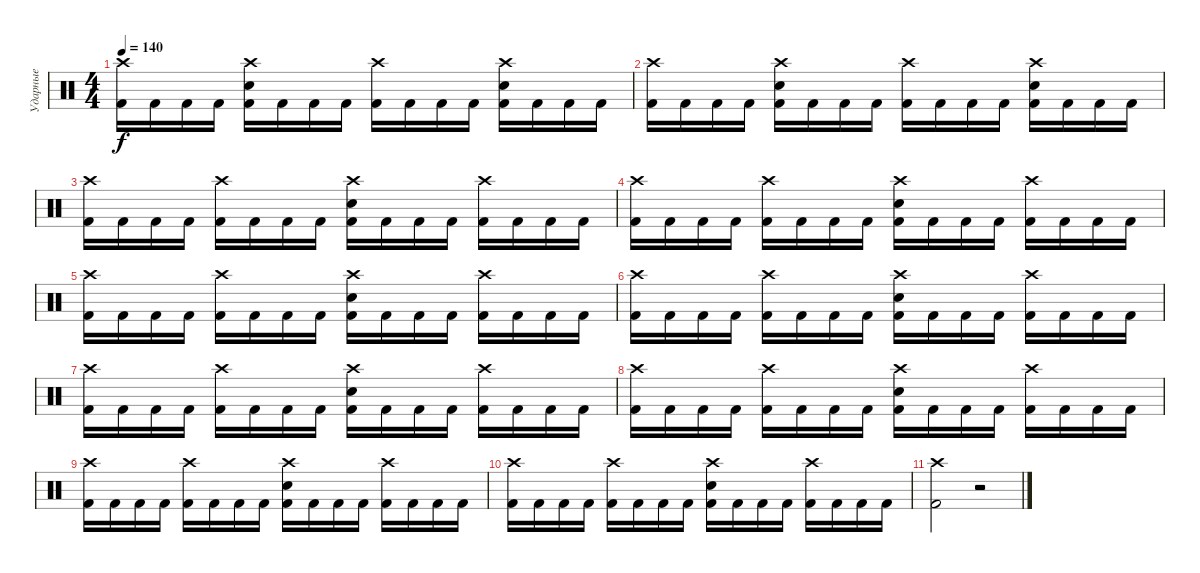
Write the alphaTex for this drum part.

\track ("Ударные" "Ударные") {mute instrument percussion}
\staff {score}
\articulation defaults
\ts (4 4)
\tempo 140
\clef neutral
\ks c
("Crash high (hit)" "Kick (hit) 2").16{dy f} "Kick (hit) 2".16 "Kick (hit) 2".16 "Kick (hit) 2".16 ("Crash high (hit)" "Electric Snare (hit)" "Kick (hit) 2").16 "Kick (hit) 2".16 "Kick (hit) 2".16 "Kick (hit) 2".16 ("Crash high (hit)" "Kick (hit) 2").16 "Kick (hit) 2".16 "Kick (hit) 2".16 "Kick (hit) 2".16 ("Crash high (hit)" "Electric Snare (hit)" "Kick (hit) 2").16 "Kick (hit) 2".16 "Kick (hit) 2".16 "Kick (hit) 2".16 |
("Crash high (hit)" "Kick (hit) 2").16 "Kick (hit) 2".16 "Kick (hit) 2".16 "Kick (hit) 2".16 ("Crash high (hit)" "Electric Snare (hit)" "Kick (hit) 2").16 "Kick (hit) 2".16 "Kick (hit) 2".16 "Kick (hit) 2".16 ("Crash high (hit)" "Kick (hit) 2").16 "Kick (hit) 2".16 "Kick (hit) 2".16 "Kick (hit) 2".16 ("Crash high (hit)" "Electric Snare (hit)" "Kick (hit) 2").16 "Kick (hit) 2".16 "Kick (hit) 2".16 "Kick (hit) 2".16 |
("Crash high (hit)" "Kick (hit) 2").16 "Kick (hit) 2".16 "Kick (hit) 2".16 "Kick (hit) 2".16 ("Crash high (hit)" "Kick (hit) 2").16 "Kick (hit) 2".16 "Kick (hit) 2".16 "Kick (hit) 2".16 ("Crash high (hit)" "Electric Snare (hit)" "Kick (hit) 2").16 "Kick (hit) 2".16 "Kick (hit) 2".16 "Kick (hit) 2".16 ("Crash high (hit)" "Kick (hit) 2").16 "Kick (hit) 2".16 "Kick (hit) 2".16 "Kick (hit) 2".16 |
("Crash high (hit)" "Kick (hit) 2").16 "Kick (hit) 2".16 "Kick (hit) 2".16 "Kick (hit) 2".16 ("Crash high (hit)" "Kick (hit) 2").16 "Kick (hit) 2".16 "Kick (hit) 2".16 "Kick (hit) 2".16 ("Crash high (hit)" "Electric Snare (hit)" "Kick (hit) 2").16 "Kick (hit) 2".16 "Kick (hit) 2".16 "Kick (hit) 2".16 ("Crash high (hit)" "Kick (hit) 2").16 "Kick (hit) 2".16 "Kick (hit) 2".16 "Kick (hit) 2".16 |
("Crash high (hit)" "Kick (hit) 2").16 "Kick (hit) 2".16 "Kick (hit) 2".16 "Kick (hit) 2".16 ("Crash high (hit)" "Kick (hit) 2").16 "Kick (hit) 2".16 "Kick (hit) 2".16 "Kick (hit) 2".16 ("Crash high (hit)" "Electric Snare (hit)" "Kick (hit) 2").16 "Kick (hit) 2".16 "Kick (hit) 2".16 "Kick (hit) 2".16 ("Crash high (hit)" "Kick (hit) 2").16 "Kick (hit) 2".16 "Kick (hit) 2".16 "Kick (hit) 2".16 |
("Crash high (hit)" "Kick (hit) 2").16 "Kick (hit) 2".16 "Kick (hit) 2".16 "Kick (hit) 2".16 ("Crash high (hit)" "Kick (hit) 2").16 "Kick (hit) 2".16 "Kick (hit) 2".16 "Kick (hit) 2".16 ("Crash high (hit)" "Electric Snare (hit)" "Kick (hit) 2").16 "Kick (hit) 2".16 "Kick (hit) 2".16 "Kick (hit) 2".16 ("Crash high (hit)" "Kick (hit) 2").16 "Kick (hit) 2".16 "Kick (hit) 2".16 "Kick (hit) 2".16 |
("Crash high (hit)" "Kick (hit) 2").16 "Kick (hit) 2".16 "Kick (hit) 2".16 "Kick (hit) 2".16 ("Crash high (hit)" "Kick (hit) 2").16 "Kick (hit) 2".16 "Kick (hit) 2".16 "Kick (hit) 2".16 ("Crash high (hit)" "Electric Snare (hit)" "Kick (hit) 2").16 "Kick (hit) 2".16 "Kick (hit) 2".16 "Kick (hit) 2".16 ("Crash high (hit)" "Kick (hit) 2").16 "Kick (hit) 2".16 "Kick (hit) 2".16 "Kick (hit) 2".16 |
("Crash high (hit)" "Kick (hit) 2").16 "Kick (hit) 2".16 "Kick (hit) 2".16 "Kick (hit) 2".16 ("Crash high (hit)" "Kick (hit) 2").16 "Kick (hit) 2".16 "Kick (hit) 2".16 "Kick (hit) 2".16 ("Crash high (hit)" "Electric Snare (hit)" "Kick (hit) 2").16 "Kick (hit) 2".16 "Kick (hit) 2".16 "Kick (hit) 2".16 ("Crash high (hit)" "Kick (hit) 2").16 "Kick (hit) 2".16 "Kick (hit) 2".16 "Kick (hit) 2".16 |
("Crash high (hit)" "Kick (hit) 2").16 "Kick (hit) 2".16 "Kick (hit) 2".16 "Kick (hit) 2".16 ("Crash high (hit)" "Kick (hit) 2").16 "Kick (hit) 2".16 "Kick (hit) 2".16 "Kick (hit) 2".16 ("Crash high (hit)" "Electric Snare (hit)" "Kick (hit) 2").16 "Kick (hit) 2".16 "Kick (hit) 2".16 "Kick (hit) 2".16 ("Crash high (hit)" "Kick (hit) 2").16 "Kick (hit) 2".16 "Kick (hit) 2".16 "Kick (hit) 2".16 |
("Crash high (hit)" "Kick (hit) 2").16 "Kick (hit) 2".16 "Kick (hit) 2".16 "Kick (hit) 2".16 ("Crash high (hit)" "Kick (hit) 2").16 "Kick (hit) 2".16 "Kick (hit) 2".16 "Kick (hit) 2".16 ("Crash high (hit)" "Electric Snare (hit)" "Kick (hit) 2").16 "Kick (hit) 2".16 "Kick (hit) 2".16 "Kick (hit) 2".16 ("Crash high (hit)" "Kick (hit) 2").16 "Kick (hit) 2".16 "Kick (hit) 2".16 "Kick (hit) 2".16 |
("Crash high (hit)" "Kick (hit) 2").2 r.2
